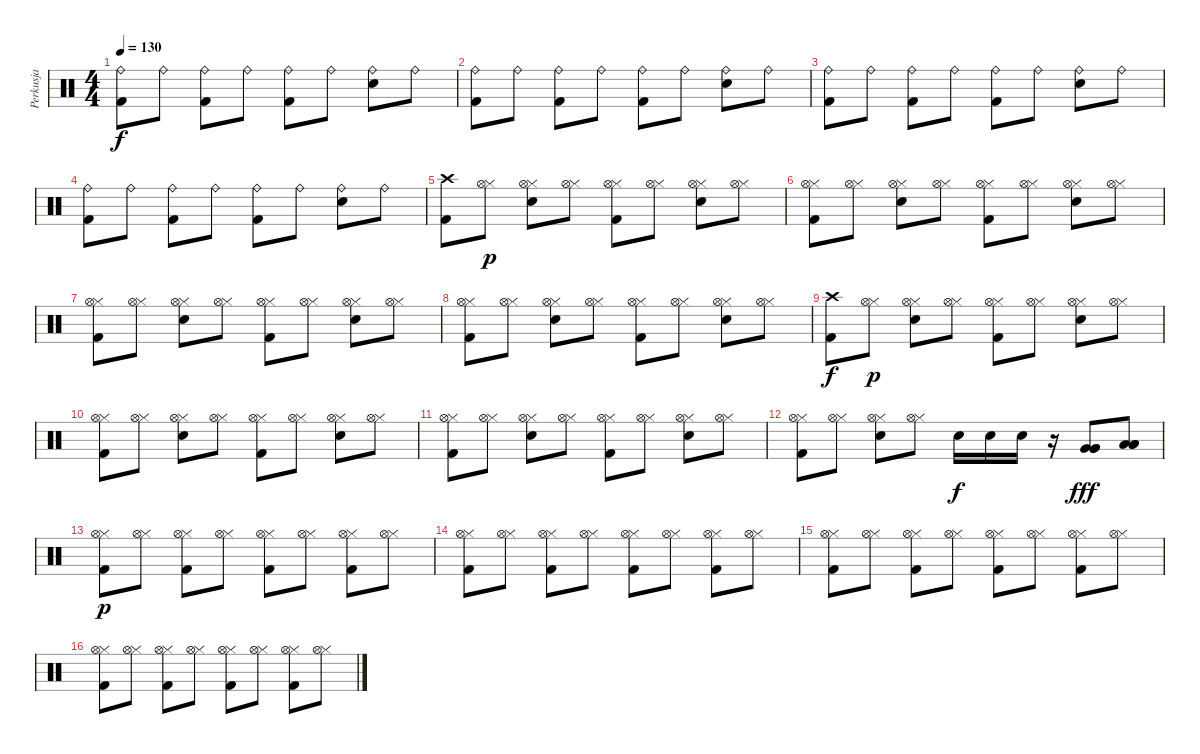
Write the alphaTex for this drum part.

\track ("Perkusja" "Perkusja") {instrument percussion}
\staff {score}
\articulation defaults
\ts (4 4)
\tempo 130
\clef neutral
\ks c
("Kick (hit) 2" "Ride (bell)").8{dy f} "Ride (bell)".8 ("Kick (hit) 2" "Ride (bell)").8 "Ride (bell)".8 ("Kick (hit) 2" "Ride (bell)").8 "Ride (bell)".8 ("Electric Snare (hit)" "Ride (bell)").8 "Ride (bell)".8 |
("Kick (hit) 2" "Ride (bell)").8 "Ride (bell)".8 ("Kick (hit) 2" "Ride (bell)").8 "Ride (bell)".8 ("Kick (hit) 2" "Ride (bell)").8 "Ride (bell)".8 ("Electric Snare (hit)" "Ride (bell)").8 "Ride (bell)".8 |
("Kick (hit) 2" "Ride (bell)").8 "Ride (bell)".8 ("Kick (hit) 2" "Ride (bell)").8 "Ride (bell)".8 ("Kick (hit) 2" "Ride (bell)").8 "Ride (bell)".8 ("Electric Snare (hit)" "Ride (bell)").8 "Ride (bell)".8 |
("Kick (hit) 2" "Ride (bell)").8 "Ride (bell)".8 ("Kick (hit) 2" "Ride (bell)").8 "Ride (bell)".8 ("Kick (hit) 2" "Ride (bell)").8 "Ride (bell)".8 ("Electric Snare (hit)" "Ride (bell)").8 "Ride (bell)".8 |
("Kick (hit) 2" "Crash high (hit)").8 ("Hi-Hat (closed)" "Hi-Hat (open)").8{dy p} ("Electric Snare (hit)" "Hi-Hat (closed)" "Hi-Hat (open)").8 ("Hi-Hat (closed)" "Hi-Hat (open)").8 ("Kick (hit) 2" "Hi-Hat (closed)" "Hi-Hat (open)").8 ("Hi-Hat (closed)" "Hi-Hat (open)").8 ("Electric Snare (hit)" "Hi-Hat (closed)" "Hi-Hat (open)").8 ("Hi-Hat (closed)" "Hi-Hat (open)").8 |
("Kick (hit) 2" "Hi-Hat (closed)" "Hi-Hat (open)").8 ("Hi-Hat (closed)" "Hi-Hat (open)").8 ("Electric Snare (hit)" "Hi-Hat (closed)" "Hi-Hat (open)").8 ("Hi-Hat (closed)" "Hi-Hat (open)").8 ("Kick (hit) 2" "Hi-Hat (closed)" "Hi-Hat (open)").8 ("Hi-Hat (closed)" "Hi-Hat (open)").8 ("Electric Snare (hit)" "Hi-Hat (closed)" "Hi-Hat (open)").8 ("Hi-Hat (closed)" "Hi-Hat (open)").8 |
("Kick (hit) 2" "Hi-Hat (closed)" "Hi-Hat (open)").8 ("Hi-Hat (closed)" "Hi-Hat (open)").8 ("Electric Snare (hit)" "Hi-Hat (closed)" "Hi-Hat (open)").8 ("Hi-Hat (closed)" "Hi-Hat (open)").8 ("Kick (hit) 2" "Hi-Hat (closed)" "Hi-Hat (open)").8 ("Hi-Hat (closed)" "Hi-Hat (open)").8 ("Electric Snare (hit)" "Hi-Hat (closed)" "Hi-Hat (open)").8 ("Hi-Hat (closed)" "Hi-Hat (open)").8 |
("Kick (hit) 2" "Hi-Hat (closed)" "Hi-Hat (open)").8 ("Hi-Hat (closed)" "Hi-Hat (open)").8 ("Electric Snare (hit)" "Hi-Hat (closed)" "Hi-Hat (open)").8 ("Hi-Hat (closed)" "Hi-Hat (open)").8 ("Kick (hit) 2" "Hi-Hat (closed)" "Hi-Hat (open)").8 ("Hi-Hat (closed)" "Hi-Hat (open)").8 ("Electric Snare (hit)" "Hi-Hat (closed)" "Hi-Hat (open)").8 ("Hi-Hat (closed)" "Hi-Hat (open)").8 |
("Kick (hit) 2" "Crash high (hit)").8{dy f} ("Hi-Hat (closed)" "Hi-Hat (open)").8{dy p} ("Electric Snare (hit)" "Hi-Hat (closed)" "Hi-Hat (open)").8 ("Hi-Hat (closed)" "Hi-Hat (open)").8 ("Kick (hit) 2" "Hi-Hat (closed)" "Hi-Hat (open)").8 ("Hi-Hat (closed)" "Hi-Hat (open)").8 ("Electric Snare (hit)" "Hi-Hat (closed)" "Hi-Hat (open)").8 ("Hi-Hat (closed)" "Hi-Hat (open)").8 |
("Kick (hit) 2" "Hi-Hat (closed)" "Hi-Hat (open)").8 ("Hi-Hat (closed)" "Hi-Hat (open)").8 ("Electric Snare (hit)" "Hi-Hat (closed)" "Hi-Hat (open)").8 ("Hi-Hat (closed)" "Hi-Hat (open)").8 ("Kick (hit) 2" "Hi-Hat (closed)" "Hi-Hat (open)").8 ("Hi-Hat (closed)" "Hi-Hat (open)").8 ("Electric Snare (hit)" "Hi-Hat (closed)" "Hi-Hat (open)").8 ("Hi-Hat (closed)" "Hi-Hat (open)").8 |
("Kick (hit) 2" "Hi-Hat (closed)" "Hi-Hat (open)").8 ("Hi-Hat (closed)" "Hi-Hat (open)").8 ("Electric Snare (hit)" "Hi-Hat (closed)" "Hi-Hat (open)").8 ("Hi-Hat (closed)" "Hi-Hat (open)").8 ("Kick (hit) 2" "Hi-Hat (closed)" "Hi-Hat (open)").8 ("Hi-Hat (closed)" "Hi-Hat (open)").8 ("Electric Snare (hit)" "Hi-Hat (closed)" "Hi-Hat (open)").8 ("Hi-Hat (closed)" "Hi-Hat (open)").8 |
("Kick (hit) 2" "Hi-Hat (closed)" "Hi-Hat (open)").8 ("Hi-Hat (closed)" "Hi-Hat (open)").8 ("Electric Snare (hit)" "Hi-Hat (closed)" "Hi-Hat (open)").8 ("Hi-Hat (closed)" "Hi-Hat (open)").8 "Electric Snare (hit)".16{dy f} "Electric Snare (hit)".16 "Electric Snare (hit)".16 r.16 ("Very Low Tom (hit)" "Very Low Tom (hit)" "Very Low Tom (hit)").8{dy fff} ("Low Floor Tom (hit)" "Low Floor Tom (hit)" "Low Floor Tom (hit)").8 |
("Kick (hit) 2" "Hi-Hat (closed)" "Hi-Hat (open)").8{dy p} ("Hi-Hat (closed)" "Hi-Hat (open)").8 ("Kick (hit) 2" "Hi-Hat (closed)" "Hi-Hat (open)").8 ("Hi-Hat (closed)" "Hi-Hat (open)").8 ("Kick (hit) 2" "Hi-Hat (closed)" "Hi-Hat (open)").8 ("Hi-Hat (closed)" "Hi-Hat (open)").8 ("Kick (hit) 2" "Hi-Hat (closed)" "Hi-Hat (open)").8 ("Hi-Hat (closed)" "Hi-Hat (open)").8 |
("Kick (hit) 2" "Hi-Hat (closed)" "Hi-Hat (open)").8 ("Hi-Hat (closed)" "Hi-Hat (open)").8 ("Kick (hit) 2" "Hi-Hat (closed)" "Hi-Hat (open)").8 ("Hi-Hat (closed)" "Hi-Hat (open)").8 ("Kick (hit) 2" "Hi-Hat (closed)" "Hi-Hat (open)").8 ("Hi-Hat (closed)" "Hi-Hat (open)").8 ("Kick (hit) 2" "Hi-Hat (closed)" "Hi-Hat (open)").8 ("Hi-Hat (closed)" "Hi-Hat (open)").8 |
("Kick (hit) 2" "Hi-Hat (closed)" "Hi-Hat (open)").8 ("Hi-Hat (closed)" "Hi-Hat (open)").8 ("Kick (hit) 2" "Hi-Hat (closed)" "Hi-Hat (open)").8 ("Hi-Hat (closed)" "Hi-Hat (open)").8 ("Kick (hit) 2" "Hi-Hat (closed)" "Hi-Hat (open)").8 ("Hi-Hat (closed)" "Hi-Hat (open)").8 ("Kick (hit) 2" "Hi-Hat (closed)" "Hi-Hat (open)").8 ("Hi-Hat (closed)" "Hi-Hat (open)").8 |
("Kick (hit) 2" "Hi-Hat (closed)" "Hi-Hat (open)").8 ("Hi-Hat (closed)" "Hi-Hat (open)").8 ("Kick (hit) 2" "Hi-Hat (closed)" "Hi-Hat (open)").8 ("Hi-Hat (closed)" "Hi-Hat (open)").8 ("Kick (hit) 2" "Hi-Hat (closed)" "Hi-Hat (open)").8 ("Hi-Hat (closed)" "Hi-Hat (open)").8 ("Kick (hit) 2" "Hi-Hat (closed)" "Hi-Hat (open)").8 ("Hi-Hat (closed)" "Hi-Hat (open)").8
